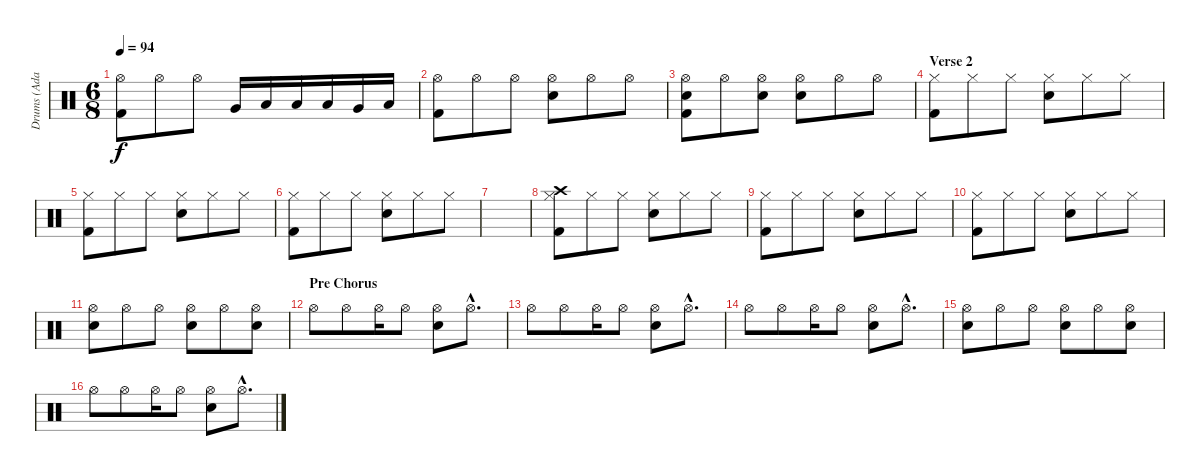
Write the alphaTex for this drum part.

\track ("Drums (Adam)" "Drums (Ada") {instrument percussion}
\staff {score}
\articulation defaults
\ts (6 8)
\tempo 94
\clef neutral
\ks c
("Hi-Hat (open)" "Kick (hit) 2").8{dy f} "Hi-Hat (open)".8 "Hi-Hat (open)".8 "Very Low Tom (hit)".16 "Low Floor Tom (hit)".16 "Low Tom (hit)".16 "Low Floor Tom (hit)".16 "Very Low Tom (hit)".16 "Low Floor Tom (hit)".16 |
("Hi-Hat (open)" "Kick (hit) 2").8 "Hi-Hat (open)".8 "Hi-Hat (open)".8 ("Hi-Hat (open)" "Snare (hit) 2").8 "Hi-Hat (open)".8 "Hi-Hat (open)".8 |
("Hi-Hat (open)" "Kick (hit) 2" "Snare (hit) 2").8 "Hi-Hat (open)".8 ("Hi-Hat (open)" "Snare (hit) 2").8 ("Hi-Hat (open)" "Snare (hit) 2").8 "Hi-Hat (open)".8 "Hi-Hat (open)".8 |
\section ("" "Verse 2")
("Hi-Hat (closed)" "Kick (hit) 2").8 "Hi-Hat (closed)".8 "Hi-Hat (closed)".8 ("Hi-Hat (closed)" "Snare (hit) 2").8 "Hi-Hat (closed)".8 "Hi-Hat (closed)".8 |
("Hi-Hat (closed)" "Kick (hit) 2").8 "Hi-Hat (closed)".8 "Hi-Hat (closed)".8 ("Hi-Hat (closed)" "Snare (hit) 2").8 "Hi-Hat (closed)".8 "Hi-Hat (closed)".8 |
("Hi-Hat (closed)" "Kick (hit) 2").8 "Hi-Hat (closed)".8 "Hi-Hat (closed)".8 ("Hi-Hat (closed)" "Snare (hit) 2").8 "Hi-Hat (closed)".8 "Hi-Hat (closed)".8 |
|
("Crash high (hit)" "Hi-Hat (closed)" "Kick (hit) 2").8 "Hi-Hat (closed)".8 "Hi-Hat (closed)".8 ("Hi-Hat (closed)" "Snare (hit) 2").8 "Hi-Hat (closed)".8 "Hi-Hat (closed)".8 |
("Hi-Hat (closed)" "Kick (hit) 2").8 "Hi-Hat (closed)".8 "Hi-Hat (closed)".8 ("Hi-Hat (closed)" "Snare (hit) 2").8 "Hi-Hat (closed)".8 "Hi-Hat (closed)".8 |
("Hi-Hat (closed)" "Kick (hit) 2").8 "Hi-Hat (closed)".8 "Hi-Hat (closed)".8 ("Hi-Hat (closed)" "Snare (hit) 2").8 "Hi-Hat (closed)".8 "Hi-Hat (closed)".8 |
("Hi-Hat (open)" "Snare (hit) 2").8 "Hi-Hat (open)".8 "Hi-Hat (open)".8 ("Hi-Hat (open)" "Snare (hit) 2").8 "Hi-Hat (open)".8 ("Hi-Hat (open)" "Snare (hit) 2").8 |
\section ("" "Pre Chorus")
"Hi-Hat (open)".8 "Hi-Hat (open)".8 "Hi-Hat (open)".16 "Hi-Hat (open)".8 ("Hi-Hat (open)" "Snare (hit) 2").8 "Hi-Hat (open)"{hac}.8{d} |
"Hi-Hat (open)".8 "Hi-Hat (open)".8 "Hi-Hat (open)".16 "Hi-Hat (open)".8 ("Hi-Hat (open)" "Snare (hit) 2").8 "Hi-Hat (open)"{hac}.8{d} |
"Hi-Hat (open)".8 "Hi-Hat (open)".8 "Hi-Hat (open)".16 "Hi-Hat (open)".8 ("Hi-Hat (open)" "Snare (hit) 2").8 "Hi-Hat (open)"{hac}.8{d} |
("Hi-Hat (open)" "Snare (hit) 2").8 "Hi-Hat (open)".8 "Hi-Hat (open)".8 ("Hi-Hat (open)" "Snare (hit) 2").8 "Hi-Hat (open)".8 ("Hi-Hat (open)" "Snare (hit) 2").8 |
"Hi-Hat (open)".8 "Hi-Hat (open)".8 "Hi-Hat (open)".16 "Hi-Hat (open)".8 ("Hi-Hat (open)" "Snare (hit) 2").8 "Hi-Hat (open)"{hac}.8{d}
